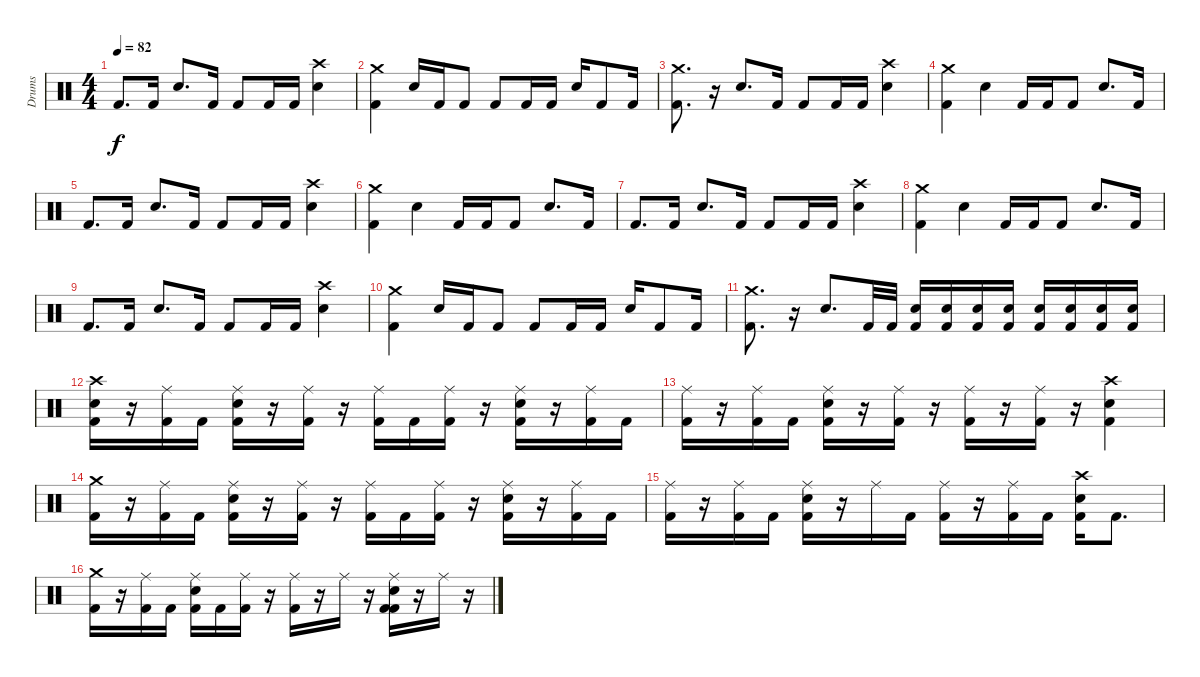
\track ("Drums" "Drums") {instrument percussion}
\staff {score}
\articulation defaults
\ts (4 4)
\tempo 82
\clef neutral
\ks c "Kick (hit) 2".8{d dy f} "Kick (hit) 2".16 "Electric Snare (hit)".8{d} "Kick (hit) 2".16 "Kick (hit) 2".8 "Kick (hit) 2".16 "Kick (hit) 2".16
("Crash high (hit)" "Electric Snare (hit)").4 |
("Crash medium (hit)" "Kick (hit) 2").4 "Electric Snare (hit)".16 "Kick (hit) 2".16 "Kick (hit) 2".8 "Kick (hit) 2".8 "Kick (hit) 2".16 "Kick (hit) 2".16 "Electric Snare (hit)".16 "Kick (hit) 2".8 "Kick (hit) 2".16 |
("Crash medium (hit)" "Kick (hit) 2").8{d} r.16 "Electric Snare (hit)".8{d} "Kick (hit) 2".16 "Kick (hit) 2".8 "Kick (hit) 2".16 "Kick (hit) 2".16 ("Crash high (hit)" "Electric Snare (hit)").4 |
("Crash medium (hit)" "Kick (hit) 2").4 "Electric Snare (hit)".4 "Kick (hit) 2".16 "Kick (hit) 2".16 "Kick (hit) 2".8 "Electric Snare (hit)".8{d} "Kick (hit) 2".16 |
"Kick (hit) 2".8{d} "Kick (hit) 2".16 "Electric Snare (hit)".8{d} "Kick (hit) 2".16 "Kick (hit) 2".8 "Kick (hit) 2".16 "Kick (hit) 2".16 ("Crash high (hit)" "Electric Snare (hit)").4 |
("Crash medium (hit)" "Kick (hit) 2").4 "Electric Snare (hit)".4 "Kick (hit) 2".16 "Kick (hit) 2".16 "Kick (hit) 2".8 "Electric Snare (hit)".8{d} "Kick (hit) 2".16 |
"Kick (hit) 2".8{d} "Kick (hit) 2".16 "Electric Snare (hit)".8{d} "Kick (hit) 2".16 "Kick (hit) 2".8 "Kick (hit) 2".16 "Kick (hit) 2".16 ("Crash high (hit)" "Electric Snare (hit)").4 |
("Crash medium (hit)" "Kick (hit) 2").4 "Electric Snare (hit)".4 "Kick (hit) 2".16 "Kick (hit) 2".16 "Kick (hit) 2".8 "Electric Snare (hit)".8{d} "Kick (hit) 2".16 |
"Kick (hit) 2".8{d} "Kick (hit) 2".16 "Electric Snare (hit)".8{d} "Kick (hit) 2".16 "Kick (hit) 2".8 "Kick (hit) 2".16 "Kick (hit) 2".16 ("Crash high (hit)" "Electric Snare (hit)").4 |
("Crash medium (hit)" "Kick (hit) 2").4 "Electric Snare (hit)".16 "Kick (hit) 2".16 "Kick (hit) 2".8 "Kick (hit) 2".8 "Kick (hit) 2".16 "Kick (hit) 2".16 "Electric Snare (hit)".16 "Kick (hit) 2".8 "Kick (hit) 2".16 |
("Crash medium (hit)" "Kick (hit) 2").8{d} r.16 "Electric Snare (hit)".8{d} "Kick (hit) 2".32 "Kick (hit) 2".32 ("Electric Snare (hit)" "Kick (hit) 2").16 ("Electric Snare (hit)" "Kick (hit) 2").16 ("Electric Snare (hit)" "Kick (hit) 2").16 ("Electric Snare (hit)" "Kick (hit) 2").16 ("Electric Snare (hit)" "Kick (hit) 2").16 ("Electric Snare (hit)" "Kick (hit) 2").16 ("Electric Snare (hit)" "Kick (hit) 2").16 ("Electric Snare (hit)" "Kick (hit) 2").16 |
("Crash high (hit)" "Electric Snare (hit)" "Kick (hit) 2").16 r.16 ("Ride (middle)" "Kick (hit) 2").16 "Kick (hit) 2".16 ("Ride (middle)" "Electric Snare (hit)" "Kick (hit) 2").16 r.16 ("Ride (middle)" "Kick (hit) 2").16 r.16 ("Ride (middle)" "Kick (hit) 2").16 "Kick (hit) 2".16 ("Ride (middle)" "Kick (hit) 2").16 r.16 ("Ride (middle)" "Electric Snare (hit)" "Kick (hit) 2").16 r.16 ("Ride (middle)" "Kick (hit) 2").16 "Kick (hit) 2".16 |
("Ride (middle)" "Kick (hit) 2").16 r.16 ("Ride (middle)" "Kick (hit) 2").16 "Kick (hit) 2".16 ("Ride (middle)" "Electric Snare (hit)" "Kick (hit) 2").16 r.16 ("Ride (middle)" "Kick (hit) 2").16 r.16 ("Ride (middle)" "Kick (hit) 2").16 r.16 ("Ride (middle)" "Kick (hit) 2").16 r.16 ("Crash high (hit)" "Electric Snare (hit)" "Kick (hit) 2").4 |
("Crash medium (hit)" "Kick (hit) 2").16 r.16 ("Ride (middle)" "Kick (hit) 2").16 "Kick (hit) 2".16 ("Ride (middle)" "Electric Snare (hit)" "Kick (hit) 2").16 r.16 ("Ride (middle)" "Kick (hit) 2").16 r.16 ("Ride (middle)" "Kick (hit) 2").16 "Kick (hit) 2".16 ("Ride (middle)" "Kick (hit) 2").16 r.16 ("Ride (middle)" "Electric Snare (hit)" "Kick (hit) 2").16 r.16 ("Ride (middle)" "Kick (hit) 2").16 "Kick (hit) 2".16 |
("Ride (middle)" "Kick (hit) 2").16 r.16 ("Ride (middle)" "Kick (hit) 2").16 "Kick (hit) 2".16 ("Ride (middle)" "Electric Snare (hit)" "Kick (hit) 2").16 r.16 "Ride (middle)".16 "Kick (hit) 2".16 ("Ride (middle)" "Kick (hit) 2").16 r.16 ("Ride (middle)" "Kick (hit) 2").16 "Kick (hit) 2".16 ("Crash high (hit)" "Electric Snare (hit)" "Kick (hit) 2").16 "Kick (hit) 2".8{d} |
("Crash medium (hit)" "Kick (hit) 2").16 r.16 ("Ride (middle)" "Kick (hit) 2").16 "Kick (hit) 2".16 ("Ride (middle)" "Electric Snare (hit)" "Kick (hit) 2").16 "Kick (hit) 2".16 ("Ride (middle)" "Kick (hit) 2").16 r.16 ("Ride (middle)" "Kick (hit) 2").16 r.16 "Ride (middle)".16 r.16 ("Ride (middle)" "Electric Snare (hit)" "Kick (hit) 2" "Kick (hit) 2").16 r.16 "Ride (middle)".16 r.16
